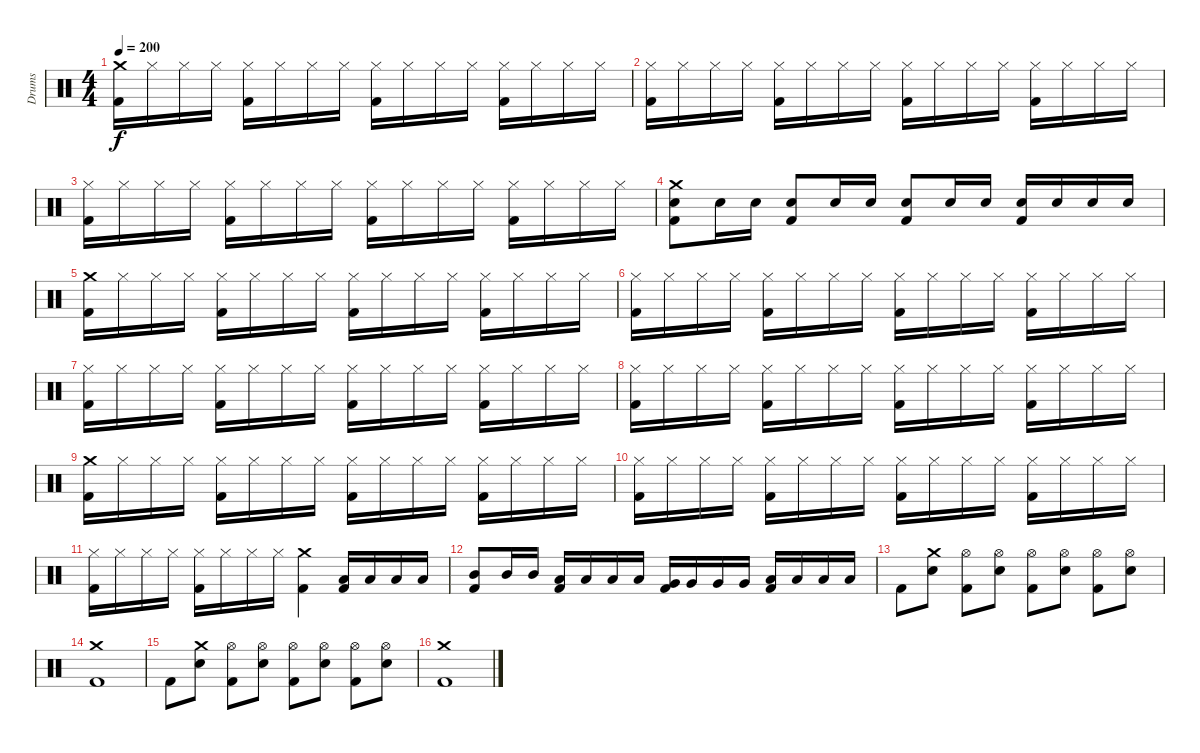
\track ("Drums" "Drums") {instrument percussion}
\staff {score}
\articulation defaults
\ts (4 4)
\tempo 200
\clef neutral
\ks c
("Crash medium (hit)" "Kick (hit) 2").16{dy f} "Hi-Hat (closed)".16 "Hi-Hat (closed)".16 "Hi-Hat (closed)".16 ("Hi-Hat (closed)" "Kick (hit) 2").16 "Hi-Hat (closed)".16 "Hi-Hat (closed)".16 "Hi-Hat (closed)".16 ("Hi-Hat (closed)" "Kick (hit) 2").16 "Hi-Hat (closed)".16 "Hi-Hat (closed)".16 "Hi-Hat (closed)".16 ("Hi-Hat (closed)" "Kick (hit) 2").16 "Hi-Hat (closed)".16 "Hi-Hat (closed)".16 "Hi-Hat (closed)".16 |
("Hi-Hat (closed)" "Kick (hit) 2").16 "Hi-Hat (closed)".16 "Hi-Hat (closed)".16 "Hi-Hat (closed)".16 ("Hi-Hat (closed)" "Kick (hit) 2").16 "Hi-Hat (closed)".16 "Hi-Hat (closed)".16 "Hi-Hat (closed)".16 ("Hi-Hat (closed)" "Kick (hit) 2").16 "Hi-Hat (closed)".16 "Hi-Hat (closed)".16 "Hi-Hat (closed)".16 ("Hi-Hat (closed)" "Kick (hit) 2").16 "Hi-Hat (closed)".16 "Hi-Hat (closed)".16 "Hi-Hat (closed)".16 |
("Hi-Hat (closed)" "Kick (hit) 2").16 "Hi-Hat (closed)".16 "Hi-Hat (closed)".16 "Hi-Hat (closed)".16 ("Hi-Hat (closed)" "Kick (hit) 2").16 "Hi-Hat (closed)".16 "Hi-Hat (closed)".16 "Hi-Hat (closed)".16 ("Hi-Hat (closed)" "Kick (hit) 2").16 "Hi-Hat (closed)".16 "Hi-Hat (closed)".16 "Hi-Hat (closed)".16 ("Hi-Hat (closed)" "Kick (hit) 2").16 "Hi-Hat (closed)".16 "Hi-Hat (closed)".16 "Hi-Hat (closed)".16 |
("Crash medium (hit)" "Snare (hit) 2" "Kick (hit) 2").8 "Snare (hit) 2".16 "Snare (hit) 2".16 ("Snare (hit) 2" "Kick (hit) 2").8 "Snare (hit) 2".16 "Snare (hit) 2".16 ("Snare (hit) 2" "Kick (hit) 2").8 "Snare (hit) 2".16 "Snare (hit) 2".16 ("Snare (hit) 2" "Kick (hit) 2").16 "Snare (hit) 2".16 "Snare (hit) 2".16 "Snare (hit) 2".16 |
("Crash medium (hit)" "Kick (hit) 2").16 "Hi-Hat (closed)".16 "Hi-Hat (closed)".16 "Hi-Hat (closed)".16 ("Hi-Hat (closed)" "Kick (hit) 2").16 "Hi-Hat (closed)".16 "Hi-Hat (closed)".16 "Hi-Hat (closed)".16 ("Hi-Hat (closed)" "Kick (hit) 2").16 "Hi-Hat (closed)".16 "Hi-Hat (closed)".16 "Hi-Hat (closed)".16 ("Hi-Hat (closed)" "Kick (hit) 2").16 "Hi-Hat (closed)".16 "Hi-Hat (closed)".16 "Hi-Hat (closed)".16 |
("Hi-Hat (closed)" "Kick (hit) 2").16 "Hi-Hat (closed)".16 "Hi-Hat (closed)".16 "Hi-Hat (closed)".16 ("Hi-Hat (closed)" "Kick (hit) 2").16 "Hi-Hat (closed)".16 "Hi-Hat (closed)".16 "Hi-Hat (closed)".16 ("Hi-Hat (closed)" "Kick (hit) 2").16 "Hi-Hat (closed)".16 "Hi-Hat (closed)".16 "Hi-Hat (closed)".16 ("Hi-Hat (closed)" "Kick (hit) 2").16 "Hi-Hat (closed)".16 "Hi-Hat (closed)".16 "Hi-Hat (closed)".16 |
("Hi-Hat (closed)" "Kick (hit) 2").16 "Hi-Hat (closed)".16 "Hi-Hat (closed)".16 "Hi-Hat (closed)".16 ("Hi-Hat (closed)" "Kick (hit) 2").16 "Hi-Hat (closed)".16 "Hi-Hat (closed)".16 "Hi-Hat (closed)".16 ("Hi-Hat (closed)" "Kick (hit) 2").16 "Hi-Hat (closed)".16 "Hi-Hat (closed)".16 "Hi-Hat (closed)".16 ("Hi-Hat (closed)" "Kick (hit) 2").16 "Hi-Hat (closed)".16 "Hi-Hat (closed)".16 "Hi-Hat (closed)".16 |
("Hi-Hat (closed)" "Kick (hit) 2").16 "Hi-Hat (closed)".16 "Hi-Hat (closed)".16 "Hi-Hat (closed)".16 ("Hi-Hat (closed)" "Kick (hit) 2").16 "Hi-Hat (closed)".16 "Hi-Hat (closed)".16 "Hi-Hat (closed)".16 ("Hi-Hat (closed)" "Kick (hit) 2").16 "Hi-Hat (closed)".16 "Hi-Hat (closed)".16 "Hi-Hat (closed)".16 ("Hi-Hat (closed)" "Kick (hit) 2").16 "Hi-Hat (closed)".16 "Hi-Hat (closed)".16 "Hi-Hat (closed)".16 |
("Crash medium (hit)" "Kick (hit) 2").16 "Hi-Hat (closed)".16 "Hi-Hat (closed)".16 "Hi-Hat (closed)".16 ("Hi-Hat (closed)" "Kick (hit) 2").16 "Hi-Hat (closed)".16 "Hi-Hat (closed)".16 "Hi-Hat (closed)".16 ("Hi-Hat (closed)" "Kick (hit) 2").16 "Hi-Hat (closed)".16 "Hi-Hat (closed)".16 "Hi-Hat (closed)".16 ("Hi-Hat (closed)" "Kick (hit) 2").16 "Hi-Hat (closed)".16 "Hi-Hat (closed)".16 "Hi-Hat (closed)".16 |
("Hi-Hat (closed)" "Kick (hit) 2").16 "Hi-Hat (closed)".16 "Hi-Hat (closed)".16 "Hi-Hat (closed)".16 ("Hi-Hat (closed)" "Kick (hit) 2").16 "Hi-Hat (closed)".16 "Hi-Hat (closed)".16 "Hi-Hat (closed)".16 ("Hi-Hat (closed)" "Kick (hit) 2").16 "Hi-Hat (closed)".16 "Hi-Hat (closed)".16 "Hi-Hat (closed)".16 ("Hi-Hat (closed)" "Kick (hit) 2").16 "Hi-Hat (closed)".16 "Hi-Hat (closed)".16 "Hi-Hat (closed)".16 |
("Hi-Hat (closed)" "Kick (hit) 2").16 "Hi-Hat (closed)".16 "Hi-Hat (closed)".16 "Hi-Hat (closed)".16 ("Hi-Hat (closed)" "Kick (hit) 2").16 "Hi-Hat (closed)".16 "Hi-Hat (closed)".16 "Hi-Hat (closed)".16 ("Crash medium (hit)" "Kick (hit) 2").4 ("Low Tom (hit)" "Kick (hit) 2").16 "Low Tom (hit)".16 "Low Tom (hit)".16 "Low Tom (hit)".16 |
("Mid Tom (hit)" "Kick (hit) 2").8 "Mid Tom (hit)".16 "Mid Tom (hit)".16 ("Low Tom (hit)" "Kick (hit) 2").16 "Low Tom (hit)".16 "Low Tom (hit)".16 "Low Tom (hit)".16 ("Very Low Tom (hit)" "Kick (hit) 2").16 "Very Low Tom (hit)".16 "Very Low Tom (hit)".16 "Very Low Tom (hit)".16 ("Low Floor Tom (hit)" "Kick (hit) 2").16 "Low Floor Tom (hit)".16 "Low Floor Tom (hit)".16 "Low Floor Tom (hit)".16 |
"Kick (hit) 2".8 ("Crash medium (hit)" "Snare (hit) 2").8 ("Hi-Hat (open)" "Kick (hit) 2").8 ("Hi-Hat (open)" "Snare (hit) 2").8 ("Hi-Hat (open)" "Kick (hit) 2").8 ("Hi-Hat (open)" "Snare (hit) 2").8 ("Hi-Hat (open)" "Kick (hit) 2").8 ("Hi-Hat (open)" "Snare (hit) 2").8 |
("Crash medium (hit)" "Kick (hit) 2").1 |
"Kick (hit) 2".8 ("Crash medium (hit)" "Snare (hit) 2").8 ("Hi-Hat (open)" "Kick (hit) 2").8 ("Hi-Hat (open)" "Snare (hit) 2").8 ("Hi-Hat (open)" "Kick (hit) 2").8 ("Hi-Hat (open)" "Snare (hit) 2").8 ("Hi-Hat (open)" "Kick (hit) 2").8 ("Hi-Hat (open)" "Snare (hit) 2").8 |
("Crash medium (hit)" "Kick (hit) 2").1
